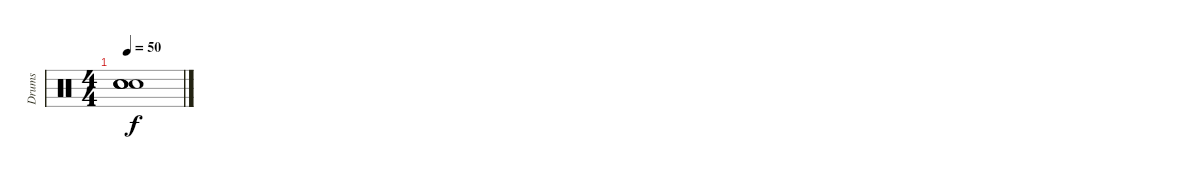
\track ("Drums" "Drums") {instrument percussion}
\staff {score}
\articulation defaults
\ts (4 4)
\tempo 50
\clef neutral
\ks c
("Snare (hit)"{t} "Snare (hit)"{t} "Snare (hit)"{t} "Snare (hit)"{t}).1{dy f}
